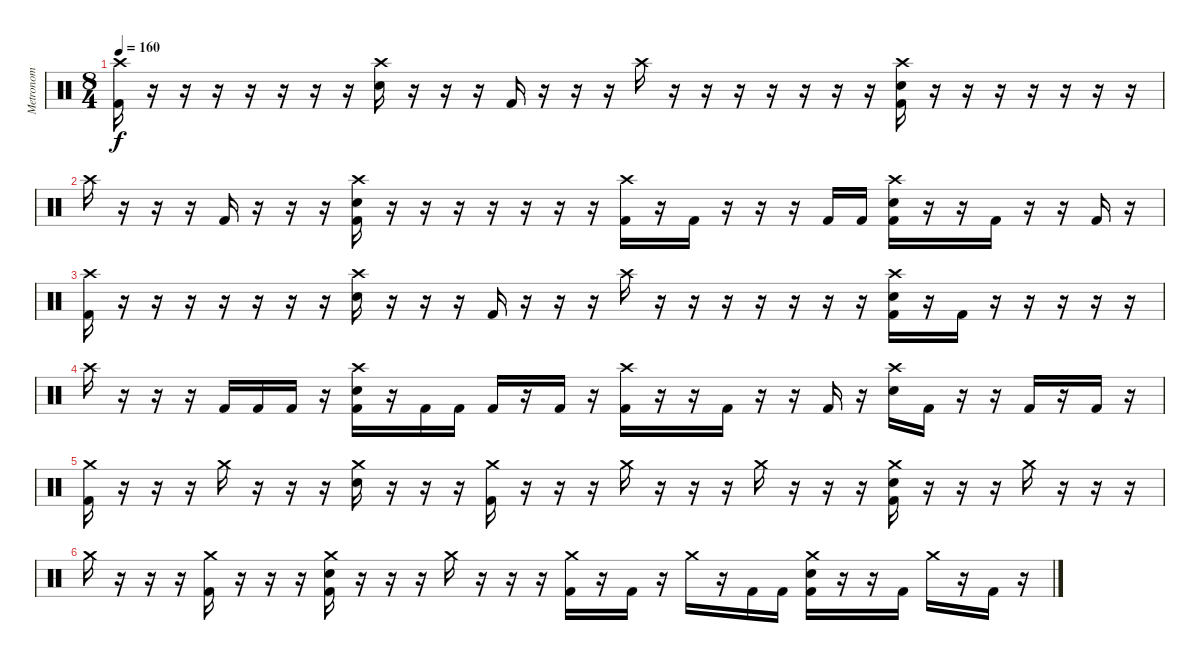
\track ("Metronom" "Metronom") {instrument percussion}
\staff
\articulation defaults
\ts (8 4)
\tempo 160
\clef neutral
\ks c
("Crash high (hit)" "Kick (hit) 2").16{dy f} r.16 r.16 r.16 r.16 r.16 r.16 r.16 ("Crash high (hit)" "Electric Snare (hit)").16 r.16 r.16 r.16 "Kick (hit) 2".16 r.16 r.16 r.16 "Crash high (hit)".16 r.16 r.16 r.16 r.16 r.16 r.16 r.16 ("Crash high (hit)" "Electric Snare (hit)" "Kick (hit) 2").16 r.16 r.16 r.16 r.16 r.16 r.16 r.16 |
"Crash high (hit)".16 r.16 r.16 r.16 "Kick (hit) 2".16 r.16 r.16 r.16 ("Crash high (hit)" "Electric Snare (hit)" "Kick (hit) 2").16 r.16 r.16 r.16 r.16 r.16 r.16 r.16 ("Crash high (hit)" "Kick (hit) 2").16 r.16 "Kick (hit) 2".16 r.16 r.16 r.16 "Kick (hit) 2".16 "Kick (hit) 2".16 ("Crash high (hit)" "Electric Snare (hit)" "Kick (hit) 2").16 r.16 r.16 "Kick (hit) 2".16 r.16 r.16 "Kick (hit) 2".16 r.16 |
("Crash high (hit)" "Kick (hit) 2").16 r.16 r.16 r.16 r.16 r.16 r.16 r.16 ("Crash high (hit)" "Electric Snare (hit)").16 r.16 r.16 r.16 "Kick (hit) 2".16 r.16 r.16 r.16 "Crash high (hit)".16 r.16 r.16 r.16 r.16 r.16 r.16 r.16 ("Crash high (hit)" "Electric Snare (hit)" "Kick (hit) 2").16 r.16 "Kick (hit) 2".16 r.16 r.16 r.16 r.16 r.16 |
"Crash high (hit)".16 r.16 r.16 r.16 "Kick (hit) 2".16 "Kick (hit) 2".16 "Kick (hit) 2".16 r.16 ("Crash high (hit)" "Electric Snare (hit)" "Kick (hit) 2").16 r.16 "Kick (hit) 2".16 "Kick (hit) 2".16 "Kick (hit) 2".16 r.16 "Kick (hit) 2".16 r.16 ("Crash high (hit)" "Kick (hit) 2").16 r.16 r.16 "Kick (hit) 2".16 r.16 r.16 "Kick (hit) 2".16 r.16 ("Crash high (hit)" "Electric Snare (hit)").16 "Kick (hit) 2".16 r.16 r.16 "Kick (hit) 2".16 r.16 "Kick (hit) 2".16 r.16 |
("Crash medium (hit)" "Kick (hit) 2").16 r.16 r.16 r.16 "Crash medium (hit)".16 r.16 r.16 r.16 ("Crash medium (hit)" "Electric Snare (hit)").16 r.16 r.16 r.16 ("Crash medium (hit)" "Kick (hit) 2").16 r.16 r.16 r.16 "Crash medium (hit)".16 r.16 r.16 r.16 "Crash medium (hit)".16 r.16 r.16 r.16 ("Crash medium (hit)" "Electric Snare (hit)" "Kick (hit) 2").16 r.16 r.16 r.16 "Crash medium (hit)".16 r.16 r.16 r.16 |
"Crash medium (hit)".16 r.16 r.16 r.16 ("Crash medium (hit)" "Kick (hit) 2").16 r.16 r.16 r.16 ("Crash medium (hit)" "Electric Snare (hit)" "Kick (hit) 2").16 r.16 r.16 r.16 "Crash medium (hit)".16 r.16 r.16 r.16 ("Crash medium (hit)" "Kick (hit) 2").16 r.16 "Kick (hit) 2".16 r.16 "Crash medium (hit)".16 r.16 "Kick (hit) 2".16 "Kick (hit) 2".16 ("Crash medium (hit)" "Electric Snare (hit)" "Kick (hit) 2").16 r.16 r.16 "Kick (hit) 2".16 "Crash medium (hit)".16 r.16 "Kick (hit) 2".16 r.16
